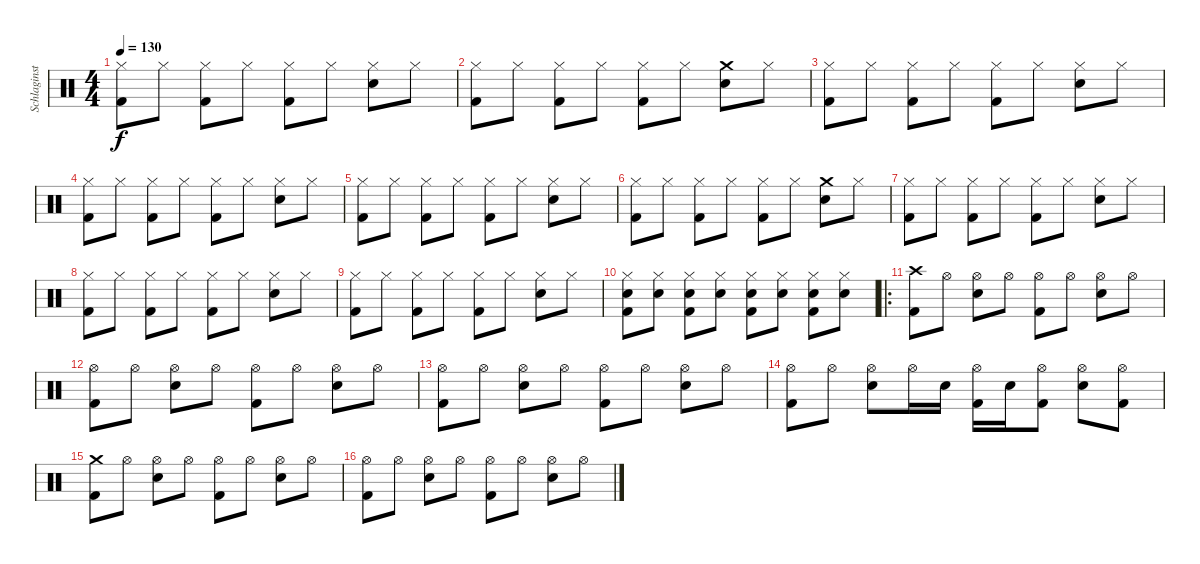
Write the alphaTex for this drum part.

\track ("Schlaginstrumente - Auswahl" "Schlaginst") {instrument percussion}
\staff {score}
\articulation defaults
\ts (4 4)
\tempo 130
\clef neutral
\ks c
("Hi-Hat (closed)" "Kick (hit) 2").8{dy f} "Hi-Hat (closed)".8 ("Hi-Hat (closed)" "Kick (hit) 2").8 "Hi-Hat (closed)".8 ("Hi-Hat (closed)" "Kick (hit) 2").8 "Hi-Hat (closed)".8 ("Hi-Hat (closed)" "Snare (hit) 2").8 "Hi-Hat (closed)".8 |
("Hi-Hat (closed)" "Kick (hit) 2").8 "Hi-Hat (closed)".8 ("Hi-Hat (closed)" "Kick (hit) 2").8 "Hi-Hat (closed)".8 ("Hi-Hat (closed)" "Kick (hit) 2").8 "Hi-Hat (closed)".8 ("Crash medium (hit)" "Snare (hit) 2").8 "Hi-Hat (closed)".8 |
("Hi-Hat (closed)" "Kick (hit) 2").8 "Hi-Hat (closed)".8 ("Hi-Hat (closed)" "Kick (hit) 2").8 "Hi-Hat (closed)".8 ("Hi-Hat (closed)" "Kick (hit) 2").8 "Hi-Hat (closed)".8 ("Hi-Hat (closed)" "Snare (hit) 2").8 "Hi-Hat (closed)".8 |
("Hi-Hat (closed)" "Kick (hit) 2").8 "Hi-Hat (closed)".8 ("Hi-Hat (closed)" "Kick (hit) 2").8 "Hi-Hat (closed)".8 ("Hi-Hat (closed)" "Kick (hit) 2").8 "Hi-Hat (closed)".8 ("Hi-Hat (closed)" "Snare (hit) 2").8 "Hi-Hat (closed)".8 |
("Hi-Hat (closed)" "Kick (hit) 2").8 "Hi-Hat (closed)".8 ("Hi-Hat (closed)" "Kick (hit) 2").8 "Hi-Hat (closed)".8 ("Hi-Hat (closed)" "Kick (hit) 2").8 "Hi-Hat (closed)".8 ("Hi-Hat (closed)" "Snare (hit) 2").8 "Hi-Hat (closed)".8 |
("Hi-Hat (closed)" "Kick (hit) 2").8 "Hi-Hat (closed)".8 ("Hi-Hat (closed)" "Kick (hit) 2").8 "Hi-Hat (closed)".8 ("Hi-Hat (closed)" "Kick (hit) 2").8 "Hi-Hat (closed)".8 ("Crash medium (hit)" "Snare (hit) 2").8 "Hi-Hat (closed)".8 |
("Hi-Hat (closed)" "Kick (hit) 2").8 "Hi-Hat (closed)".8 ("Hi-Hat (closed)" "Kick (hit) 2").8 "Hi-Hat (closed)".8 ("Hi-Hat (closed)" "Kick (hit) 2").8 "Hi-Hat (closed)".8 ("Hi-Hat (closed)" "Snare (hit) 2").8 "Hi-Hat (closed)".8 |
("Hi-Hat (closed)" "Kick (hit) 2").8 "Hi-Hat (closed)".8 ("Hi-Hat (closed)" "Kick (hit) 2").8 "Hi-Hat (closed)".8 ("Hi-Hat (closed)" "Kick (hit) 2").8 "Hi-Hat (closed)".8 ("Hi-Hat (closed)" "Snare (hit) 2").8 "Hi-Hat (closed)".8 |
("Hi-Hat (closed)" "Kick (hit) 2").8 "Hi-Hat (closed)".8 ("Hi-Hat (closed)" "Kick (hit) 2").8 "Hi-Hat (closed)".8 ("Hi-Hat (closed)" "Kick (hit) 2").8 "Hi-Hat (closed)".8 ("Hi-Hat (closed)" "Snare (hit) 2").8 "Hi-Hat (closed)".8 |
("Hi-Hat (closed)" "Snare (hit) 2" "Kick (hit) 2").8 ("Hi-Hat (closed)" "Snare (hit) 2").8 ("Hi-Hat (closed)" "Snare (hit) 2" "Kick (hit) 2").8 ("Hi-Hat (closed)" "Snare (hit) 2").8 ("Hi-Hat (closed)" "Snare (hit) 2" "Kick (hit) 2").8 ("Hi-Hat (closed)" "Snare (hit) 2").8 ("Hi-Hat (closed)" "Snare (hit) 2" "Kick (hit) 2").8 ("Hi-Hat (closed)" "Snare (hit) 2").8 |
\ro
("Crash high (hit)" "Kick (hit) 2").8 "Hi-Hat (open)".8 ("Hi-Hat (open)" "Snare (hit) 2").8 "Hi-Hat (open)".8 ("Hi-Hat (open)" "Kick (hit) 2").8 "Hi-Hat (open)".8 ("Hi-Hat (open)" "Snare (hit) 2").8 "Hi-Hat (open)".8 |
("Hi-Hat (open)" "Kick (hit) 2").8 "Hi-Hat (open)".8 ("Hi-Hat (open)" "Snare (hit) 2").8 "Hi-Hat (open)".8 ("Hi-Hat (open)" "Kick (hit) 2").8 "Hi-Hat (open)".8 ("Hi-Hat (open)" "Snare (hit) 2").8 "Hi-Hat (open)".8 |
("Hi-Hat (open)" "Kick (hit) 2").8 "Hi-Hat (open)".8 ("Hi-Hat (open)" "Snare (hit) 2").8 "Hi-Hat (open)".8 ("Hi-Hat (open)" "Kick (hit) 2").8 "Hi-Hat (open)".8 ("Hi-Hat (open)" "Snare (hit) 2").8 "Hi-Hat (open)".8 |
("Hi-Hat (open)" "Kick (hit) 2").8 "Hi-Hat (open)".8 ("Hi-Hat (open)" "Snare (hit) 2").8 "Hi-Hat (open)".16 "Snare (hit) 2".16 ("Hi-Hat (open)" "Kick (hit) 2").16 "Snare (hit) 2".16 ("Hi-Hat (open)" "Kick (hit) 2").8 ("Hi-Hat (open)" "Snare (hit) 2").8 ("Hi-Hat (open)" "Kick (hit) 2").8 |
("Crash medium (hit)" "Kick (hit) 2").8 "Hi-Hat (open)".8 ("Hi-Hat (open)" "Snare (hit) 2").8 "Hi-Hat (open)".8 ("Hi-Hat (open)" "Kick (hit) 2").8 "Hi-Hat (open)".8 ("Hi-Hat (open)" "Snare (hit) 2").8 "Hi-Hat (open)".8 |
("Hi-Hat (open)" "Kick (hit) 2").8 "Hi-Hat (open)".8 ("Hi-Hat (open)" "Snare (hit) 2").8 "Hi-Hat (open)".8 ("Hi-Hat (open)" "Kick (hit) 2").8 "Hi-Hat (open)".8 ("Hi-Hat (open)" "Snare (hit) 2").8 "Hi-Hat (open)".8
